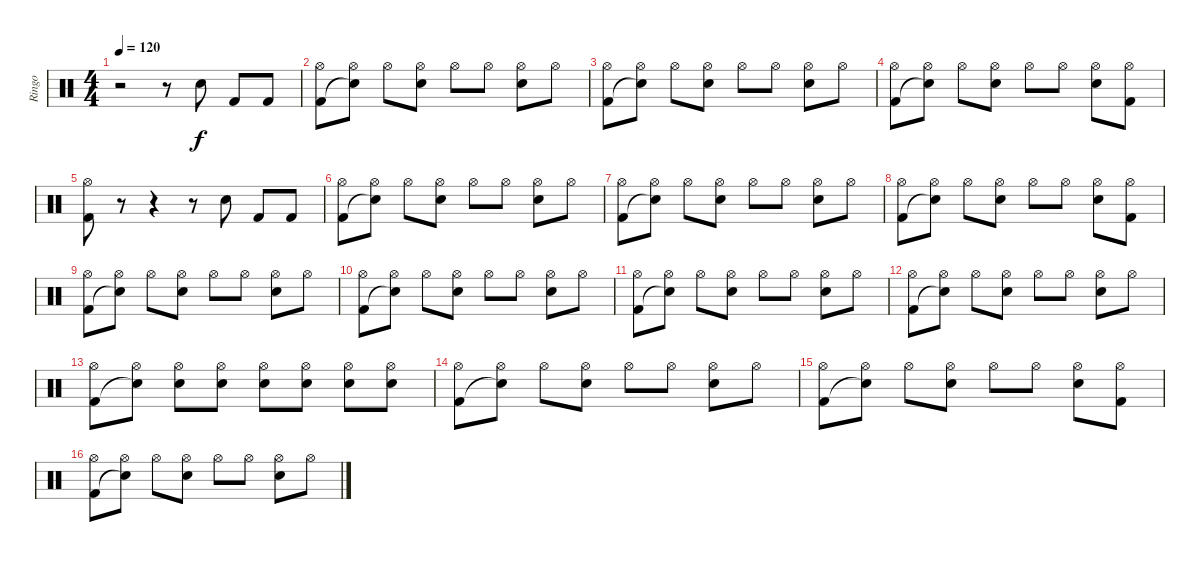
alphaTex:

\track ("Ringo" "Ringo") {instrument percussion}
\staff {score}
\articulation defaults
\ts (4 4)
\tempo 120
\clef neutral
\ks c
r.2{dy f} r.8 "Snare (hit) 2".8 "Kick (hit) 2".8 "Kick (hit) 2".8 |
("Hi-Hat (open)" "Kick (hit) 2").8 ("Hi-Hat (open)" "Snare (hit)"{t}).8 "Hi-Hat (open)".8 ("Hi-Hat (open)" "Snare (hit) 2").8 "Hi-Hat (open)".8 "Hi-Hat (open)".8 ("Hi-Hat (open)" "Snare (hit) 2").8 "Hi-Hat (open)".8 |
("Hi-Hat (open)" "Kick (hit) 2").8 ("Hi-Hat (open)" "Snare (hit)"{t}).8 "Hi-Hat (open)".8 ("Hi-Hat (open)" "Snare (hit) 2").8 "Hi-Hat (open)".8 "Hi-Hat (open)".8 ("Hi-Hat (open)" "Snare (hit) 2").8 "Hi-Hat (open)".8 |
("Hi-Hat (open)" "Kick (hit) 2").8 ("Hi-Hat (open)" "Snare (hit)"{t}).8 "Hi-Hat (open)".8 ("Hi-Hat (open)" "Snare (hit) 2").8 "Hi-Hat (open)".8 "Hi-Hat (open)".8 ("Hi-Hat (open)" "Snare (hit) 2").8 ("Hi-Hat (open)" "Kick (hit) 2").8 |
("Hi-Hat (open)" "Kick (hit) 2").8 r.8 r.4 r.8 "Snare (hit) 2".8 "Kick (hit) 2".8 "Kick (hit) 2".8 |
("Hi-Hat (open)" "Kick (hit) 2").8 ("Hi-Hat (open)" "Snare (hit)"{t}).8 "Hi-Hat (open)".8 ("Hi-Hat (open)" "Snare (hit) 2").8 "Hi-Hat (open)".8 "Hi-Hat (open)".8 ("Hi-Hat (open)" "Snare (hit) 2").8 "Hi-Hat (open)".8 |
("Hi-Hat (open)" "Kick (hit) 2").8 ("Hi-Hat (open)" "Snare (hit)"{t}).8 "Hi-Hat (open)".8 ("Hi-Hat (open)" "Snare (hit) 2").8 "Hi-Hat (open)".8 "Hi-Hat (open)".8 ("Hi-Hat (open)" "Snare (hit) 2").8 "Hi-Hat (open)".8 |
("Hi-Hat (open)" "Kick (hit) 2").8 ("Hi-Hat (open)" "Snare (hit)"{t}).8 "Hi-Hat (open)".8 ("Hi-Hat (open)" "Snare (hit) 2").8 "Hi-Hat (open)".8 "Hi-Hat (open)".8 ("Hi-Hat (open)" "Snare (hit) 2").8 ("Hi-Hat (open)" "Kick (hit) 2").8 |
("Hi-Hat (open)" "Kick (hit) 2").8 ("Hi-Hat (open)" "Snare (hit)"{t}).8 "Hi-Hat (open)".8 ("Hi-Hat (open)" "Snare (hit) 2").8 "Hi-Hat (open)".8 "Hi-Hat (open)".8 ("Hi-Hat (open)" "Snare (hit) 2").8 "Hi-Hat (open)".8 |
("Hi-Hat (open)" "Kick (hit) 2").8 ("Hi-Hat (open)" "Snare (hit)"{t}).8 "Hi-Hat (open)".8 ("Hi-Hat (open)" "Snare (hit) 2").8 "Hi-Hat (open)".8 "Hi-Hat (open)".8 ("Hi-Hat (open)" "Snare (hit) 2").8 "Hi-Hat (open)".8 |
("Hi-Hat (open)" "Kick (hit) 2").8 ("Hi-Hat (open)" "Snare (hit)"{t}).8 "Hi-Hat (open)".8 ("Hi-Hat (open)" "Snare (hit) 2").8 "Hi-Hat (open)".8 "Hi-Hat (open)".8 ("Hi-Hat (open)" "Snare (hit) 2").8 "Hi-Hat (open)".8 |
("Hi-Hat (open)" "Kick (hit) 2").8 ("Hi-Hat (open)" "Snare (hit)"{t}).8 "Hi-Hat (open)".8 ("Hi-Hat (open)" "Snare (hit) 2").8 "Hi-Hat (open)".8 "Hi-Hat (open)".8 ("Hi-Hat (open)" "Snare (hit) 2").8 "Hi-Hat (open)".8 |
("Hi-Hat (open)" "Kick (hit) 2").8 ("Hi-Hat (open)" "Snare (hit)"{t}).8 ("Hi-Hat (open)" "Snare (hit) 2").8 ("Hi-Hat (open)" "Snare (hit) 2").8 ("Hi-Hat (open)" "Snare (hit) 2").8 ("Hi-Hat (open)" "Snare (hit) 2").8 ("Hi-Hat (open)" "Snare (hit) 2").8 ("Hi-Hat (open)" "Snare (hit) 2").8 |
("Hi-Hat (open)" "Kick (hit) 2").8 ("Hi-Hat (open)" "Snare (hit)"{t}).8 "Hi-Hat (open)".8 ("Hi-Hat (open)" "Snare (hit) 2").8 "Hi-Hat (open)".8 "Hi-Hat (open)".8 ("Hi-Hat (open)" "Snare (hit) 2").8 "Hi-Hat (open)".8 |
("Hi-Hat (open)" "Kick (hit) 2").8 ("Hi-Hat (open)" "Snare (hit)"{t}).8 "Hi-Hat (open)".8 ("Hi-Hat (open)" "Snare (hit) 2").8 "Hi-Hat (open)".8 "Hi-Hat (open)".8 ("Hi-Hat (open)" "Snare (hit) 2").8 ("Hi-Hat (open)" "Kick (hit) 2").8 |
("Hi-Hat (open)" "Kick (hit) 2").8 ("Hi-Hat (open)" "Snare (hit)"{t}).8 "Hi-Hat (open)".8 ("Hi-Hat (open)" "Snare (hit) 2").8 "Hi-Hat (open)".8 "Hi-Hat (open)".8 ("Hi-Hat (open)" "Snare (hit) 2").8 "Hi-Hat (open)".8
